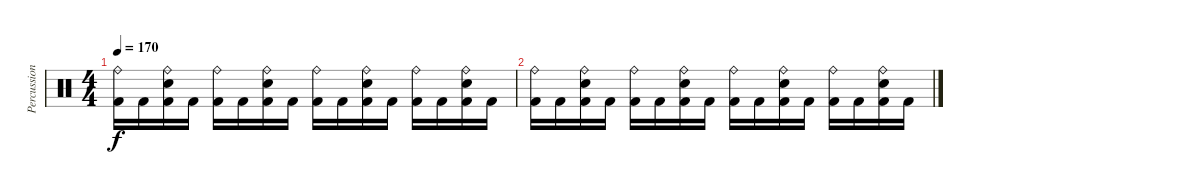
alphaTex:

\track ("Percussions" "Percussion") {instrument percussion}
\staff {score}
\articulation defaults
\ts (4 4)
\tempo 170
\clef neutral
\ks c
("Ride (bell)" "Kick (hit) 2").16{dy f} "Kick (hit) 2".16 ("Ride (bell)" "Snare (hit) 2" "Kick (hit) 2").16 "Kick (hit) 2".16 ("Ride (bell)" "Kick (hit) 2").16 "Kick (hit) 2".16 ("Ride (bell)" "Snare (hit) 2" "Kick (hit) 2").16 "Kick (hit) 2".16 ("Ride (bell)" "Kick (hit) 2").16 "Kick (hit) 2".16 ("Ride (bell)" "Snare (hit) 2" "Kick (hit) 2").16 "Kick (hit) 2".16 ("Ride (bell)" "Kick (hit) 2").16 "Kick (hit) 2".16 ("Ride (bell)" "Snare (hit) 2" "Kick (hit) 2").16 "Kick (hit) 2".16 |
("Ride (bell)" "Kick (hit) 2").16 "Kick (hit) 2".16 ("Ride (bell)" "Snare (hit) 2" "Kick (hit) 2").16 "Kick (hit) 2".16 ("Ride (bell)" "Kick (hit) 2").16 "Kick (hit) 2".16 ("Ride (bell)" "Snare (hit) 2" "Kick (hit) 2").16 "Kick (hit) 2".16 ("Ride (bell)" "Kick (hit) 2").16 "Kick (hit) 2".16 ("Ride (bell)" "Snare (hit) 2" "Kick (hit) 2").16 "Kick (hit) 2".16 ("Ride (bell)" "Kick (hit) 2").16 "Kick (hit) 2".16 ("Ride (bell)" "Snare (hit) 2" "Kick (hit) 2").16 "Kick (hit) 2".16
